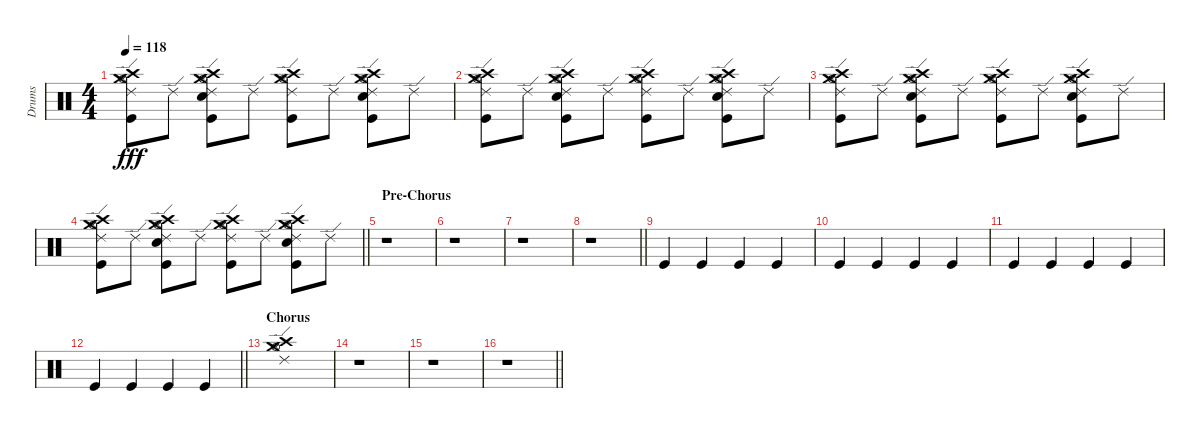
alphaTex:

\track ("Drums" "Drums") {instrument percussion}
\staff {score}
\articulation defaults
\ts (4 4)
\tempo 118
\clef neutral
\ks c
("Crash medium (hit)" "Crash high (hit)" "Ride (edge) 2" "Hi-Hat (open)" "Kick (hit)").8{dy fff} "Ride (edge) 2".8 ("Crash medium (hit)" "Crash high (hit)" "Ride (edge) 2" "Hi-Hat (open)" "Electric Snare (hit)" "Kick (hit)").8 "Ride (edge) 2".8 ("Crash medium (hit)" "Crash high (hit)" "Ride (edge) 2" "Hi-Hat (open)" "Kick (hit)").8 "Ride (edge) 2".8 ("Crash medium (hit)" "Crash high (hit)" "Ride (edge) 2" "Hi-Hat (open)" "Electric Snare (hit)" "Kick (hit)").8 "Ride (edge) 2".8 |
("Crash medium (hit)" "Crash high (hit)" "Ride (edge) 2" "Hi-Hat (open)" "Kick (hit)").8 "Ride (edge) 2".8 ("Crash medium (hit)" "Crash high (hit)" "Ride (edge) 2" "Hi-Hat (open)" "Electric Snare (hit)" "Kick (hit)").8 "Ride (edge) 2".8 ("Crash medium (hit)" "Crash high (hit)" "Ride (edge) 2" "Hi-Hat (open)" "Kick (hit)").8 "Ride (edge) 2".8 ("Crash medium (hit)" "Crash high (hit)" "Ride (edge) 2" "Hi-Hat (open)" "Electric Snare (hit)" "Kick (hit)").8 "Ride (edge) 2".8 |
("Crash medium (hit)" "Crash high (hit)" "Ride (edge) 2" "Hi-Hat (open)" "Kick (hit)").8 "Ride (edge) 2".8 ("Crash medium (hit)" "Crash high (hit)" "Ride (edge) 2" "Hi-Hat (open)" "Electric Snare (hit)" "Kick (hit)").8 "Ride (edge) 2".8 ("Crash medium (hit)" "Crash high (hit)" "Ride (edge) 2" "Hi-Hat (open)" "Kick (hit)").8 "Ride (edge) 2".8 ("Crash medium (hit)" "Crash high (hit)" "Ride (edge) 2" "Hi-Hat (open)" "Electric Snare (hit)" "Kick (hit)").8 "Ride (edge) 2".8 |
\barLineRight lightlight
("Crash medium (hit)" "Crash high (hit)" "Ride (edge) 2" "Hi-Hat (open)" "Kick (hit)").8 "Ride (edge) 2".8 ("Crash medium (hit)" "Crash high (hit)" "Ride (edge) 2" "Hi-Hat (open)" "Electric Snare (hit)" "Kick (hit)").8 "Ride (edge) 2".8 ("Crash medium (hit)" "Crash high (hit)" "Ride (edge) 2" "Hi-Hat (open)" "Kick (hit)").8 "Ride (edge) 2".8 ("Crash medium (hit)" "Crash high (hit)" "Ride (edge) 2" "Hi-Hat (open)" "Electric Snare (hit)" "Kick (hit)").8 "Ride (edge) 2".8 |
\section ("" "Pre-Chorus")
r.1 |
r.1 |
r.1 |
\barLineRight lightlight
r.1 |
"Kick (hit)".4 "Kick (hit)".4 "Kick (hit)".4 "Kick (hit)".4 |
"Kick (hit)".4 "Kick (hit)".4 "Kick (hit)".4 "Kick (hit)".4 |
"Kick (hit)".4 "Kick (hit)".4 "Kick (hit)".4 "Kick (hit)".4 |
\barLineRight lightlight "Kick (hit)".4 "Kick (hit)".4 "Kick (hit)".4 "Kick (hit)".4
|
\section ("" "Chorus")
("Crash medium (hit)" "Crash high (hit)" "Ride (edge) 2" "Hi-Hat (open)").1 |
r.1 |
r.1 |
\barLineRight lightlight
r.1
